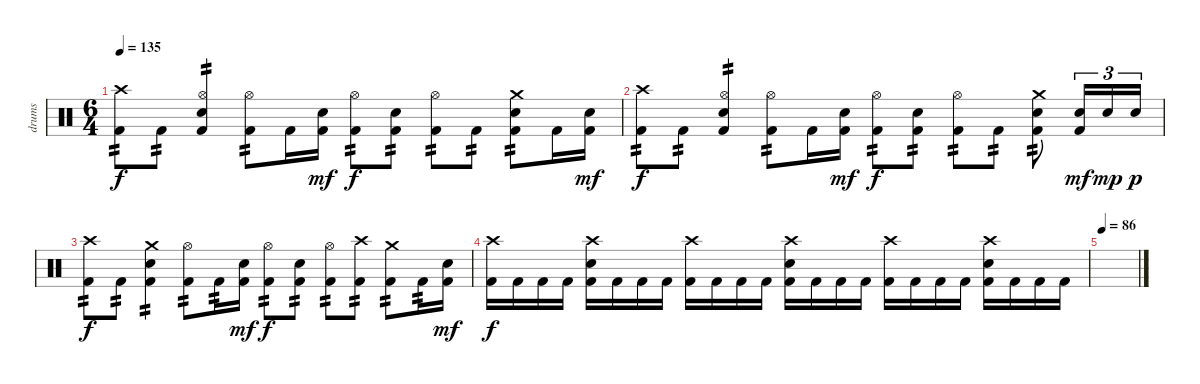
\track ("drums" "drums") {instrument percussion}
\staff {score}
\articulation defaults
\ts (6 4)
\tempo 135
\clef neutral
\ks c
("Crash high (hit)" "Kick (hit) 2").8{tp 2 dy f} "Kick (hit) 2".8{tp 2} ("Hi-Hat (open)" "Electric Snare (hit)" "Kick (hit) 2").4{tp 2} ("Hi-Hat (open)" "Kick (hit) 2").8{tp 2} "Kick (hit) 2".16 ("Electric Snare (hit)" "Kick (hit) 2").16{dy mf} ("Hi-Hat (open)" "Kick (hit) 2").8{tp 2 dy f} ("Electric Snare (hit)" "Kick (hit) 2").8{tp 2} ("Hi-Hat (open)" "Kick (hit) 2").8{tp 2} "Kick (hit) 2".8{tp 2} ("Crash medium (hit)" "Electric Snare (hit)" "Kick (hit) 2").8{tp 2} "Kick (hit) 2".16 ("Electric Snare (hit)" "Kick (hit) 2").16{dy mf} |
("Crash high (hit)" "Kick (hit) 2").8{tp 2 dy f volume 5} "Kick (hit) 2".8{tp 2} ("Hi-Hat (open)" "Electric Snare (hit)" "Kick (hit) 2").4{tp 2} ("Hi-Hat (open)" "Kick (hit) 2").8{tp 2} "Kick (hit) 2".16 ("Electric Snare (hit)" "Kick (hit) 2").16{dy mf} ("Hi-Hat (open)" "Kick (hit) 2").8{tp 2 dy f} ("Electric Snare (hit)" "Kick (hit) 2").8{tp 2} ("Hi-Hat (open)" "Kick (hit) 2").8{tp 2} "Kick (hit) 2".8{tp 2} ("Crash medium (hit)" "Electric Snare (hit)" "Kick (hit) 2").8{tp 2} ("Electric Snare (hit)" "Kick (hit) 2").16{tu (3 2) dy mf} "Electric Snare (hit)".16{tu (3 2) dy mp} "Electric Snare (hit)".16{tu (3 2) dy p} |
("Crash high (hit)" "Kick (hit) 2").8{tp 2 dy f} "Kick (hit) 2".8{tp 2} ("Crash medium (hit)" "Electric Snare (hit)" "Kick (hit) 2").4{tp 2} ("Hi-Hat (open)" "Kick (hit) 2").8{tp 2} "Kick (hit) 2".16{tp 2} ("Electric Snare (hit)" "Kick (hit) 2").16{dy mf} ("Hi-Hat (open)" "Kick (hit) 2").8{tp 2 dy f} ("Electric Snare (hit)" "Kick (hit) 2").8{tp 2} ("Hi-Hat (open)" "Kick (hit) 2").8{tp 2} ("Crash high (hit)" "Kick (hit) 2").8{tp 2} ("Crash medium (hit)" "Kick (hit) 2").8{tp 2} "Kick (hit) 2".16{tp 2} ("Electric Snare (hit)" "Kick (hit) 2").16{dy mf} |
("Crash high (hit)" "Kick (hit) 2").16{dy f} "Kick (hit) 2".16 "Kick (hit) 2".16 "Kick (hit) 2".16 ("Crash high (hit)" "Electric Snare (hit)" "Kick (hit) 2").16 "Kick (hit) 2".16 "Kick (hit) 2".16 "Kick (hit) 2".16 ("Crash high (hit)" "Kick (hit) 2").16{volume 1} "Kick (hit) 2".16 "Kick (hit) 2".16 "Kick (hit) 2".16 ("Crash high (hit)" "Electric Snare (hit)" "Kick (hit) 2").16 "Kick (hit) 2".16 "Kick (hit) 2".16 "Kick (hit) 2".16 ("Crash high (hit)" "Kick (hit) 2").16 "Kick (hit) 2".16 "Kick (hit) 2".16 "Kick (hit) 2".16 ("Crash high (hit)" "Electric Snare (hit)" "Kick (hit) 2").16 "Kick (hit) 2".16 "Kick (hit) 2".16 "Kick (hit) 2".16 |
\tempo 86
